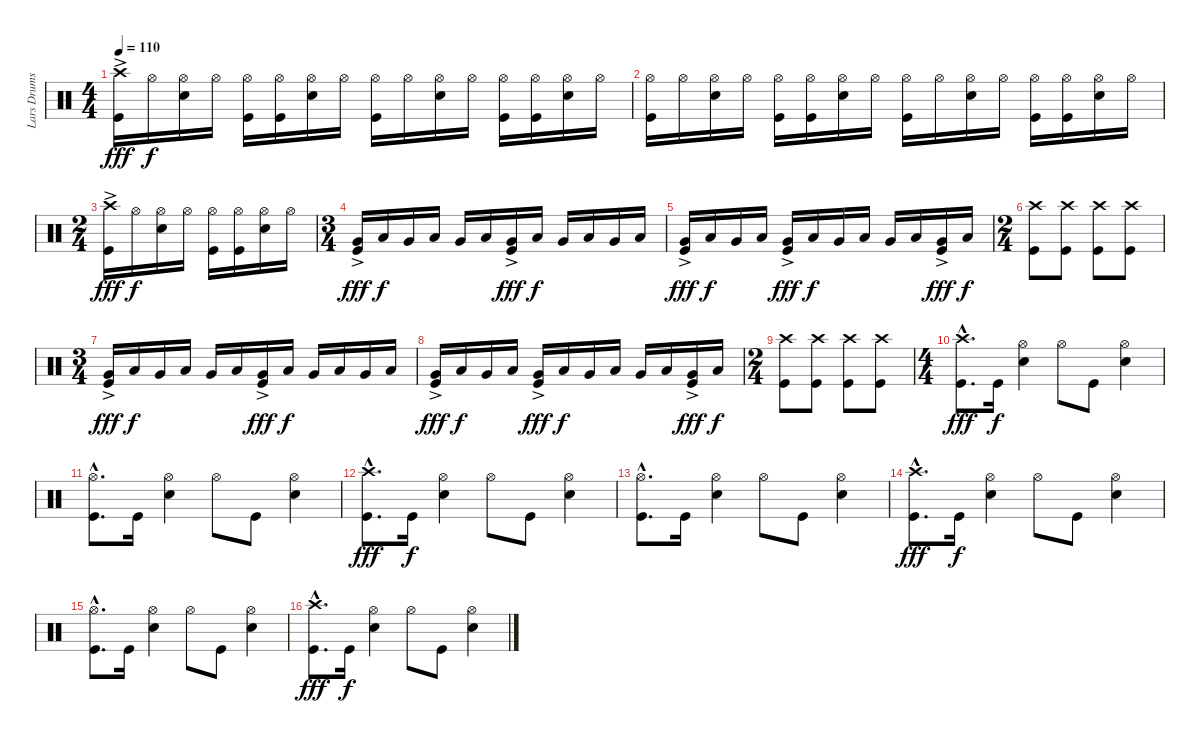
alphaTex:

\track ("Lars Drums" "Lars Drums") {instrument percussion}
\staff {score}
\articulation defaults
\ts (4 4)
\tempo 110
\clef neutral
\ks c
("Crash high (hit)" "Kick (hit)"{ac}).16{dy fff} "Hi-Hat (open)".16{dy f} ("Hi-Hat (open)" "Electric Snare (hit)").16 "Hi-Hat (open)".16 ("Hi-Hat (open)" "Kick (hit)").16 ("Hi-Hat (open)" "Kick (hit)").16 ("Hi-Hat (open)" "Electric Snare (hit)").16 "Hi-Hat (open)".16 ("Hi-Hat (open)" "Kick (hit)").16 "Hi-Hat (open)".16 ("Hi-Hat (open)" "Electric Snare (hit)").16 "Hi-Hat (open)".16 ("Hi-Hat (open)" "Kick (hit)").16 ("Hi-Hat (open)" "Kick (hit)").16 ("Hi-Hat (open)" "Electric Snare (hit)").16 "Hi-Hat (open)".16 |
("Hi-Hat (open)" "Kick (hit)").16 "Hi-Hat (open)".16 ("Hi-Hat (open)" "Electric Snare (hit)").16 "Hi-Hat (open)".16 ("Hi-Hat (open)" "Kick (hit)").16 ("Hi-Hat (open)" "Kick (hit)").16 ("Hi-Hat (open)" "Electric Snare (hit)").16 "Hi-Hat (open)".16 ("Hi-Hat (open)" "Kick (hit)").16 "Hi-Hat (open)".16 ("Hi-Hat (open)" "Electric Snare (hit)").16 "Hi-Hat (open)".16 ("Hi-Hat (open)" "Kick (hit)").16 ("Hi-Hat (open)" "Kick (hit)").16 ("Hi-Hat (open)" "Electric Snare (hit)").16 "Hi-Hat (open)".16 |
\ts (2 4)
("Crash high (hit)" "Kick (hit)"{ac}).16{dy fff} "Hi-Hat (open)".16{dy f} ("Hi-Hat (open)" "Electric Snare (hit)").16 "Hi-Hat (open)".16 ("Hi-Hat (open)" "Kick (hit)").16 ("Hi-Hat (open)" "Kick (hit)").16 ("Hi-Hat (open)" "Electric Snare (hit)").16 "Hi-Hat (open)".16 |
\ts (3 4)
("Kick (hit)"{ac} "Very Low Tom (hit)").16{dy fff} "Low Floor Tom (hit)".16{dy f} "Very Low Tom (hit)".16 "Low Floor Tom (hit)".16 "Very Low Tom (hit)".16 "Low Floor Tom (hit)".16 ("Kick (hit)"{ac} "Very Low Tom (hit)").16{dy fff} "Low Floor Tom (hit)".16{dy f} "Very Low Tom (hit)".16 "Low Floor Tom (hit)".16 "Very Low Tom (hit)".16 "Low Floor Tom (hit)".16 |
("Kick (hit)"{ac} "Very Low Tom (hit)").16{dy fff} "Low Floor Tom (hit)".16{dy f} "Very Low Tom (hit)".16 "Low Floor Tom (hit)".16 ("Kick (hit)"{ac} "Very Low Tom (hit)").16{dy fff} "Low Floor Tom (hit)".16{dy f} "Very Low Tom (hit)".16 "Low Floor Tom (hit)".16 "Very Low Tom (hit)".16 "Low Floor Tom (hit)".16 ("Kick (hit)"{ac} "Very Low Tom (hit)").16{dy fff} "Low Floor Tom (hit)".16{dy f} |
\ts (2 4)
("Crash high (hit)" "Kick (hit)").8 ("Crash high (hit)" "Kick (hit)").8 ("Crash high (hit)" "Kick (hit)").8 ("Crash high (hit)" "Kick (hit)").8 |
\ts (3 4)
("Kick (hit)"{ac} "Very Low Tom (hit)").16{dy fff} "Low Floor Tom (hit)".16{dy f} "Very Low Tom (hit)".16 "Low Floor Tom (hit)".16 "Very Low Tom (hit)".16 "Low Floor Tom (hit)".16 ("Kick (hit)"{ac} "Very Low Tom (hit)").16{dy fff} "Low Floor Tom (hit)".16{dy f} "Very Low Tom (hit)".16 "Low Floor Tom (hit)".16 "Very Low Tom (hit)".16 "Low Floor Tom (hit)".16 |
("Kick (hit)"{ac} "Very Low Tom (hit)").16{dy fff} "Low Floor Tom (hit)".16{dy f} "Very Low Tom (hit)".16 "Low Floor Tom (hit)".16 ("Kick (hit)"{ac} "Very Low Tom (hit)").16{dy fff} "Low Floor Tom (hit)".16{dy f} "Very Low Tom (hit)".16 "Low Floor Tom (hit)".16 "Very Low Tom (hit)".16 "Low Floor Tom (hit)".16 ("Kick (hit)"{ac} "Very Low Tom (hit)").16{dy fff} "Low Floor Tom (hit)".16{dy f} |
\ts (2 4)
("Crash high (hit)" "Kick (hit)").8 ("Crash high (hit)" "Kick (hit)").8 ("Crash high (hit)" "Kick (hit)").8 ("Crash high (hit)" "Kick (hit)").8 |
\ts (4 4)
("Crash high (hit)"{hac} "Kick (hit)"{hac}).8{d dy fff} "Kick (hit)".16{dy f} ("Hi-Hat (open)" "Electric Snare (hit)").4 "Hi-Hat (open)".8 "Kick (hit)".8 ("Hi-Hat (open)" "Electric Snare (hit)").4 |
("Hi-Hat (open)"{hac} "Kick (hit)"{hac}).8{d} "Kick (hit)".16 ("Hi-Hat (open)" "Electric Snare (hit)").4 "Hi-Hat (open)".8 "Kick (hit)".8 ("Hi-Hat (open)" "Electric Snare (hit)").4 |
("Crash high (hit)"{hac} "Kick (hit)"{hac}).8{d dy fff} "Kick (hit)".16{dy f} ("Hi-Hat (open)" "Electric Snare (hit)").4 "Hi-Hat (open)".8 "Kick (hit)".8 ("Hi-Hat (open)" "Electric Snare (hit)").4 |
("Hi-Hat (open)"{hac} "Kick (hit)"{hac}).8{d} "Kick (hit)".16 ("Hi-Hat (open)" "Electric Snare (hit)").4 "Hi-Hat (open)".8 "Kick (hit)".8 ("Hi-Hat (open)" "Electric Snare (hit)").4 |
("Crash high (hit)"{hac} "Kick (hit)"{hac}).8{d dy fff} "Kick (hit)".16{dy f} ("Hi-Hat (open)" "Electric Snare (hit)").4 "Hi-Hat (open)".8 "Kick (hit)".8 ("Hi-Hat (open)" "Electric Snare (hit)").4 |
("Hi-Hat (open)"{hac} "Kick (hit)"{hac}).8{d} "Kick (hit)".16 ("Hi-Hat (open)" "Electric Snare (hit)").4 "Hi-Hat (open)".8 "Kick (hit)".8 ("Hi-Hat (open)" "Electric Snare (hit)").4 |
("Crash high (hit)"{hac} "Kick (hit)"{hac}).8{d dy fff} "Kick (hit)".16{dy f} ("Hi-Hat (open)" "Electric Snare (hit)").4 "Hi-Hat (open)".8 "Kick (hit)".8 ("Hi-Hat (open)" "Electric Snare (hit)").4
